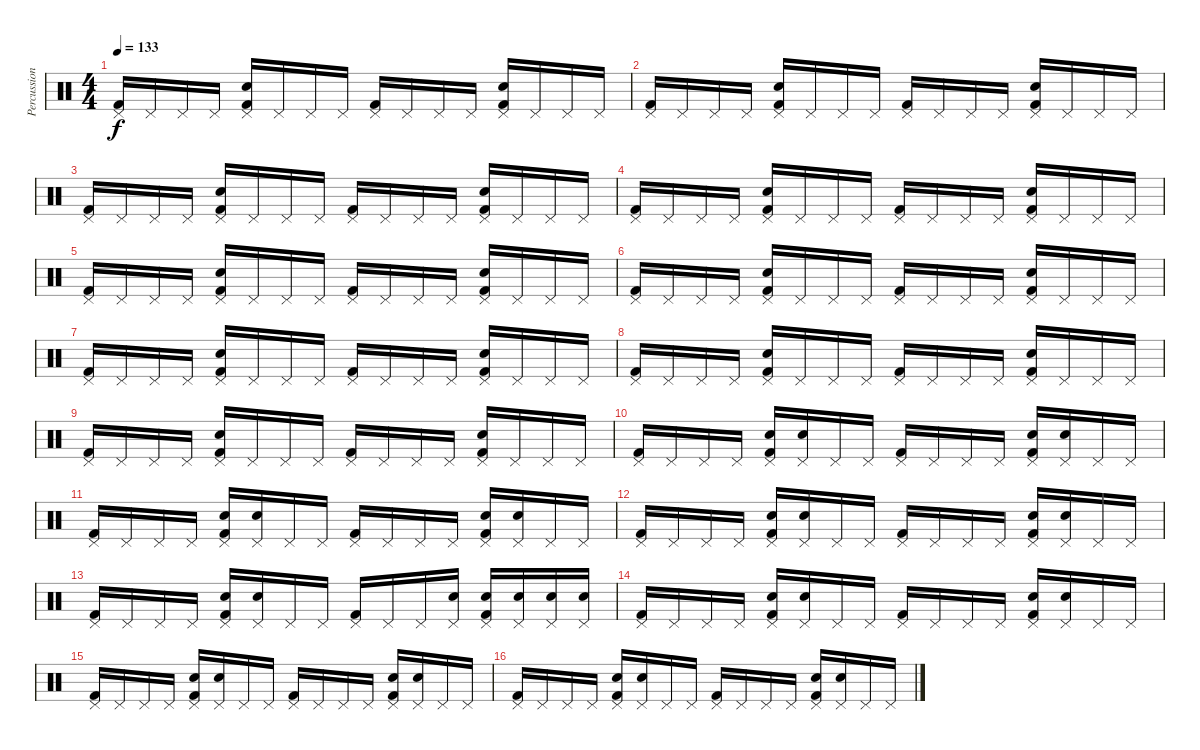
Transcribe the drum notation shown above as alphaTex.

\track ("Percussions" "Percussion") {instrument percussion}
\staff {score}
\articulation defaults
\ts (4 4)
\tempo 133
\clef neutral
\ks c
("Pedal Hi-Hat (hit)" "Kick (hit) 2").16{dy f} "Pedal Hi-Hat (hit)".16 "Pedal Hi-Hat (hit)".16 "Pedal Hi-Hat (hit)".16 ("Pedal Hi-Hat (hit)" "Electric Snare (hit)" "Kick (hit) 2").16 "Pedal Hi-Hat (hit)".16 "Pedal Hi-Hat (hit)".16 "Pedal Hi-Hat (hit)".16 ("Pedal Hi-Hat (hit)" "Kick (hit) 2").16 "Pedal Hi-Hat (hit)".16 "Pedal Hi-Hat (hit)".16 "Pedal Hi-Hat (hit)".16 ("Pedal Hi-Hat (hit)" "Electric Snare (hit)" "Kick (hit) 2").16 "Pedal Hi-Hat (hit)".16 "Pedal Hi-Hat (hit)".16 "Pedal Hi-Hat (hit)".16 |
("Pedal Hi-Hat (hit)" "Kick (hit) 2").16 "Pedal Hi-Hat (hit)".16 "Pedal Hi-Hat (hit)".16 "Pedal Hi-Hat (hit)".16 ("Pedal Hi-Hat (hit)" "Electric Snare (hit)" "Kick (hit) 2").16 "Pedal Hi-Hat (hit)".16 "Pedal Hi-Hat (hit)".16 "Pedal Hi-Hat (hit)".16 ("Pedal Hi-Hat (hit)" "Kick (hit) 2").16 "Pedal Hi-Hat (hit)".16 "Pedal Hi-Hat (hit)".16 "Pedal Hi-Hat (hit)".16 ("Pedal Hi-Hat (hit)" "Electric Snare (hit)" "Kick (hit) 2").16 "Pedal Hi-Hat (hit)".16 "Pedal Hi-Hat (hit)".16 "Pedal Hi-Hat (hit)".16 |
("Pedal Hi-Hat (hit)" "Kick (hit) 2").16 "Pedal Hi-Hat (hit)".16 "Pedal Hi-Hat (hit)".16 "Pedal Hi-Hat (hit)".16 ("Pedal Hi-Hat (hit)" "Electric Snare (hit)" "Kick (hit) 2").16 "Pedal Hi-Hat (hit)".16 "Pedal Hi-Hat (hit)".16 "Pedal Hi-Hat (hit)".16 ("Pedal Hi-Hat (hit)" "Kick (hit) 2").16 "Pedal Hi-Hat (hit)".16 "Pedal Hi-Hat (hit)".16 "Pedal Hi-Hat (hit)".16 ("Pedal Hi-Hat (hit)" "Electric Snare (hit)" "Kick (hit) 2").16 "Pedal Hi-Hat (hit)".16 "Pedal Hi-Hat (hit)".16 "Pedal Hi-Hat (hit)".16 |
("Pedal Hi-Hat (hit)" "Kick (hit) 2").16 "Pedal Hi-Hat (hit)".16 "Pedal Hi-Hat (hit)".16 "Pedal Hi-Hat (hit)".16 ("Pedal Hi-Hat (hit)" "Electric Snare (hit)" "Kick (hit) 2").16 "Pedal Hi-Hat (hit)".16 "Pedal Hi-Hat (hit)".16 "Pedal Hi-Hat (hit)".16 ("Pedal Hi-Hat (hit)" "Kick (hit) 2").16 "Pedal Hi-Hat (hit)".16 "Pedal Hi-Hat (hit)".16 "Pedal Hi-Hat (hit)".16 ("Pedal Hi-Hat (hit)" "Electric Snare (hit)" "Kick (hit) 2").16 "Pedal Hi-Hat (hit)".16 "Pedal Hi-Hat (hit)".16 "Pedal Hi-Hat (hit)".16 |
("Pedal Hi-Hat (hit)" "Kick (hit) 2").16 "Pedal Hi-Hat (hit)".16 "Pedal Hi-Hat (hit)".16 "Pedal Hi-Hat (hit)".16 ("Pedal Hi-Hat (hit)" "Electric Snare (hit)" "Kick (hit) 2").16 "Pedal Hi-Hat (hit)".16 "Pedal Hi-Hat (hit)".16 "Pedal Hi-Hat (hit)".16 ("Pedal Hi-Hat (hit)" "Kick (hit) 2").16 "Pedal Hi-Hat (hit)".16 "Pedal Hi-Hat (hit)".16 "Pedal Hi-Hat (hit)".16 ("Pedal Hi-Hat (hit)" "Electric Snare (hit)" "Kick (hit) 2").16 "Pedal Hi-Hat (hit)".16 "Pedal Hi-Hat (hit)".16 "Pedal Hi-Hat (hit)".16 |
("Pedal Hi-Hat (hit)" "Kick (hit) 2").16 "Pedal Hi-Hat (hit)".16 "Pedal Hi-Hat (hit)".16 "Pedal Hi-Hat (hit)".16 ("Pedal Hi-Hat (hit)" "Electric Snare (hit)" "Kick (hit) 2").16 "Pedal Hi-Hat (hit)".16 "Pedal Hi-Hat (hit)".16 "Pedal Hi-Hat (hit)".16 ("Pedal Hi-Hat (hit)" "Kick (hit) 2").16 "Pedal Hi-Hat (hit)".16 "Pedal Hi-Hat (hit)".16 "Pedal Hi-Hat (hit)".16 ("Pedal Hi-Hat (hit)" "Electric Snare (hit)" "Kick (hit) 2").16 "Pedal Hi-Hat (hit)".16 "Pedal Hi-Hat (hit)".16 "Pedal Hi-Hat (hit)".16 |
("Pedal Hi-Hat (hit)" "Kick (hit) 2").16 "Pedal Hi-Hat (hit)".16 "Pedal Hi-Hat (hit)".16 "Pedal Hi-Hat (hit)".16 ("Pedal Hi-Hat (hit)" "Electric Snare (hit)" "Kick (hit) 2").16 "Pedal Hi-Hat (hit)".16 "Pedal Hi-Hat (hit)".16 "Pedal Hi-Hat (hit)".16 ("Pedal Hi-Hat (hit)" "Kick (hit) 2").16 "Pedal Hi-Hat (hit)".16 "Pedal Hi-Hat (hit)".16 "Pedal Hi-Hat (hit)".16 ("Pedal Hi-Hat (hit)" "Electric Snare (hit)" "Kick (hit) 2").16 "Pedal Hi-Hat (hit)".16 "Pedal Hi-Hat (hit)".16 "Pedal Hi-Hat (hit)".16 |
("Pedal Hi-Hat (hit)" "Kick (hit) 2").16 "Pedal Hi-Hat (hit)".16 "Pedal Hi-Hat (hit)".16 "Pedal Hi-Hat (hit)".16 ("Pedal Hi-Hat (hit)" "Electric Snare (hit)" "Kick (hit) 2").16 "Pedal Hi-Hat (hit)".16 "Pedal Hi-Hat (hit)".16 "Pedal Hi-Hat (hit)".16 ("Pedal Hi-Hat (hit)" "Kick (hit) 2").16 "Pedal Hi-Hat (hit)".16 "Pedal Hi-Hat (hit)".16 "Pedal Hi-Hat (hit)".16 ("Pedal Hi-Hat (hit)" "Electric Snare (hit)" "Kick (hit) 2").16 "Pedal Hi-Hat (hit)".16 "Pedal Hi-Hat (hit)".16 "Pedal Hi-Hat (hit)".16 |
("Pedal Hi-Hat (hit)" "Kick (hit) 2").16 "Pedal Hi-Hat (hit)".16 "Pedal Hi-Hat (hit)".16 "Pedal Hi-Hat (hit)".16 ("Pedal Hi-Hat (hit)" "Electric Snare (hit)" "Kick (hit) 2").16 "Pedal Hi-Hat (hit)".16 "Pedal Hi-Hat (hit)".16 "Pedal Hi-Hat (hit)".16 ("Pedal Hi-Hat (hit)" "Kick (hit) 2").16 "Pedal Hi-Hat (hit)".16 "Pedal Hi-Hat (hit)".16 "Pedal Hi-Hat (hit)".16 ("Pedal Hi-Hat (hit)" "Electric Snare (hit)" "Kick (hit) 2").16 "Pedal Hi-Hat (hit)".16 "Pedal Hi-Hat (hit)".16 "Pedal Hi-Hat (hit)".16 |
("Pedal Hi-Hat (hit)" "Kick (hit) 2").16 "Pedal Hi-Hat (hit)".16 "Pedal Hi-Hat (hit)".16 "Pedal Hi-Hat (hit)".16 ("Pedal Hi-Hat (hit)" "Electric Snare (hit)" "Kick (hit) 2").16 ("Pedal Hi-Hat (hit)" "Electric Snare (hit)").16 "Pedal Hi-Hat (hit)".16 "Pedal Hi-Hat (hit)".16 ("Pedal Hi-Hat (hit)" "Kick (hit) 2").16 "Pedal Hi-Hat (hit)".16 "Pedal Hi-Hat (hit)".16 "Pedal Hi-Hat (hit)".16 ("Pedal Hi-Hat (hit)" "Electric Snare (hit)" "Kick (hit) 2").16 ("Pedal Hi-Hat (hit)" "Electric Snare (hit)").16 "Pedal Hi-Hat (hit)".16 "Pedal Hi-Hat (hit)".16 |
("Pedal Hi-Hat (hit)" "Kick (hit) 2").16 "Pedal Hi-Hat (hit)".16 "Pedal Hi-Hat (hit)".16 "Pedal Hi-Hat (hit)".16 ("Pedal Hi-Hat (hit)" "Electric Snare (hit)" "Kick (hit) 2").16 ("Pedal Hi-Hat (hit)" "Electric Snare (hit)").16 "Pedal Hi-Hat (hit)".16 "Pedal Hi-Hat (hit)".16 ("Pedal Hi-Hat (hit)" "Kick (hit) 2").16 "Pedal Hi-Hat (hit)".16 "Pedal Hi-Hat (hit)".16 "Pedal Hi-Hat (hit)".16 ("Pedal Hi-Hat (hit)" "Electric Snare (hit)" "Kick (hit) 2").16 ("Pedal Hi-Hat (hit)" "Electric Snare (hit)").16 "Pedal Hi-Hat (hit)".16 "Pedal Hi-Hat (hit)".16 |
("Pedal Hi-Hat (hit)" "Kick (hit) 2").16 "Pedal Hi-Hat (hit)".16 "Pedal Hi-Hat (hit)".16 "Pedal Hi-Hat (hit)".16 ("Pedal Hi-Hat (hit)" "Electric Snare (hit)" "Kick (hit) 2").16 ("Pedal Hi-Hat (hit)" "Electric Snare (hit)").16 "Pedal Hi-Hat (hit)".16 "Pedal Hi-Hat (hit)".16 ("Pedal Hi-Hat (hit)" "Kick (hit) 2").16 "Pedal Hi-Hat (hit)".16 "Pedal Hi-Hat (hit)".16 "Pedal Hi-Hat (hit)".16 ("Pedal Hi-Hat (hit)" "Electric Snare (hit)" "Kick (hit) 2").16 ("Pedal Hi-Hat (hit)" "Electric Snare (hit)").16 "Pedal Hi-Hat (hit)".16 "Pedal Hi-Hat (hit)".16 |
("Pedal Hi-Hat (hit)" "Kick (hit) 2").16 "Pedal Hi-Hat (hit)".16 "Pedal Hi-Hat (hit)".16 "Pedal Hi-Hat (hit)".16 ("Pedal Hi-Hat (hit)" "Electric Snare (hit)" "Kick (hit) 2").16 ("Pedal Hi-Hat (hit)" "Electric Snare (hit)").16 "Pedal Hi-Hat (hit)".16 "Pedal Hi-Hat (hit)".16 ("Pedal Hi-Hat (hit)" "Kick (hit) 2").16 "Pedal Hi-Hat (hit)".16 "Pedal Hi-Hat (hit)".16 ("Pedal Hi-Hat (hit)" "Electric Snare (hit)").16 ("Pedal Hi-Hat (hit)" "Electric Snare (hit)" "Kick (hit) 2").16 ("Pedal Hi-Hat (hit)" "Electric Snare (hit)").16 ("Pedal Hi-Hat (hit)" "Electric Snare (hit)").16 ("Pedal Hi-Hat (hit)" "Electric Snare (hit)").16 |
("Pedal Hi-Hat (hit)" "Kick (hit) 2").16 "Pedal Hi-Hat (hit)".16 "Pedal Hi-Hat (hit)".16 "Pedal Hi-Hat (hit)".16 ("Pedal Hi-Hat (hit)" "Electric Snare (hit)" "Kick (hit) 2").16 ("Pedal Hi-Hat (hit)" "Electric Snare (hit)").16 "Pedal Hi-Hat (hit)".16 "Pedal Hi-Hat (hit)".16 ("Pedal Hi-Hat (hit)" "Kick (hit) 2").16 "Pedal Hi-Hat (hit)".16 "Pedal Hi-Hat (hit)".16 "Pedal Hi-Hat (hit)".16 ("Pedal Hi-Hat (hit)" "Electric Snare (hit)" "Kick (hit) 2").16 ("Pedal Hi-Hat (hit)" "Electric Snare (hit)").16 "Pedal Hi-Hat (hit)".16 "Pedal Hi-Hat (hit)".16 |
("Pedal Hi-Hat (hit)" "Kick (hit) 2").16 "Pedal Hi-Hat (hit)".16 "Pedal Hi-Hat (hit)".16 "Pedal Hi-Hat (hit)".16 ("Pedal Hi-Hat (hit)" "Electric Snare (hit)" "Kick (hit) 2").16 ("Pedal Hi-Hat (hit)" "Electric Snare (hit)").16 "Pedal Hi-Hat (hit)".16 "Pedal Hi-Hat (hit)".16 ("Pedal Hi-Hat (hit)" "Kick (hit) 2").16 "Pedal Hi-Hat (hit)".16 "Pedal Hi-Hat (hit)".16 "Pedal Hi-Hat (hit)".16 ("Pedal Hi-Hat (hit)" "Electric Snare (hit)" "Kick (hit) 2").16 ("Pedal Hi-Hat (hit)" "Electric Snare (hit)").16 "Pedal Hi-Hat (hit)".16 "Pedal Hi-Hat (hit)".16 |
("Pedal Hi-Hat (hit)" "Kick (hit) 2").16 "Pedal Hi-Hat (hit)".16 "Pedal Hi-Hat (hit)".16 "Pedal Hi-Hat (hit)".16 ("Pedal Hi-Hat (hit)" "Electric Snare (hit)" "Kick (hit) 2").16 ("Pedal Hi-Hat (hit)" "Electric Snare (hit)").16 "Pedal Hi-Hat (hit)".16 "Pedal Hi-Hat (hit)".16 ("Pedal Hi-Hat (hit)" "Kick (hit) 2").16 "Pedal Hi-Hat (hit)".16 "Pedal Hi-Hat (hit)".16 "Pedal Hi-Hat (hit)".16 ("Pedal Hi-Hat (hit)" "Electric Snare (hit)" "Kick (hit) 2").16 ("Pedal Hi-Hat (hit)" "Electric Snare (hit)").16 "Pedal Hi-Hat (hit)".16 "Pedal Hi-Hat (hit)".16
